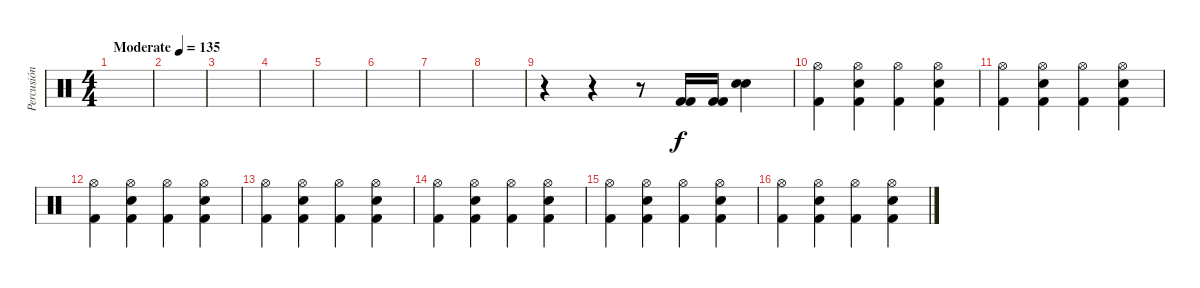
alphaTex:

\track ("Percusión" "Percusión") {instrument percussion}
\staff {score}
\articulation defaults
\ts (4 4)
\tempo (135 "Moderate")
\clef neutral
\ks c
|
|
|
|
|
|
|
|
r.4 r.4 r.8 ("Kick (hit) 2" "Kick (hit) 2").16 ("Kick (hit) 2" "Kick (hit) 2").16 ("Electric Snare (hit)" "Electric Snare (hit)").4 |
("Kick (hit) 2" "Hi-Hat (open)").4 ("Kick (hit) 2" "Electric Snare (hit)" "Hi-Hat (open)").4 ("Kick (hit) 2" "Hi-Hat (open)").4 ("Kick (hit) 2" "Electric Snare (hit)" "Hi-Hat (open)").4 |
("Kick (hit) 2" "Hi-Hat (open)").4 ("Kick (hit) 2" "Electric Snare (hit)" "Hi-Hat (open)").4 ("Kick (hit) 2" "Hi-Hat (open)").4 ("Kick (hit) 2" "Electric Snare (hit)" "Hi-Hat (open)").4 |
("Kick (hit) 2" "Hi-Hat (open)").4 ("Kick (hit) 2" "Electric Snare (hit)" "Hi-Hat (open)").4 ("Kick (hit) 2" "Hi-Hat (open)").4 ("Kick (hit) 2" "Electric Snare (hit)" "Hi-Hat (open)").4 |
("Kick (hit) 2" "Hi-Hat (open)").4 ("Kick (hit) 2" "Electric Snare (hit)" "Hi-Hat (open)").4 ("Kick (hit) 2" "Hi-Hat (open)").4 ("Kick (hit) 2" "Electric Snare (hit)" "Hi-Hat (open)").4 |
("Kick (hit) 2" "Hi-Hat (open)").4 ("Kick (hit) 2" "Electric Snare (hit)" "Hi-Hat (open)").4 ("Kick (hit) 2" "Hi-Hat (open)").4 ("Kick (hit) 2" "Electric Snare (hit)" "Hi-Hat (open)").4 |
("Kick (hit) 2" "Hi-Hat (open)").4 ("Kick (hit) 2" "Electric Snare (hit)" "Hi-Hat (open)").4 ("Kick (hit) 2" "Hi-Hat (open)").4 ("Kick (hit) 2" "Electric Snare (hit)" "Hi-Hat (open)").4 |
("Kick (hit) 2" "Hi-Hat (open)").4 ("Kick (hit) 2" "Electric Snare (hit)" "Hi-Hat (open)").4 ("Kick (hit) 2" "Hi-Hat (open)").4 ("Kick (hit) 2" "Electric Snare (hit)" "Hi-Hat (open)").4
